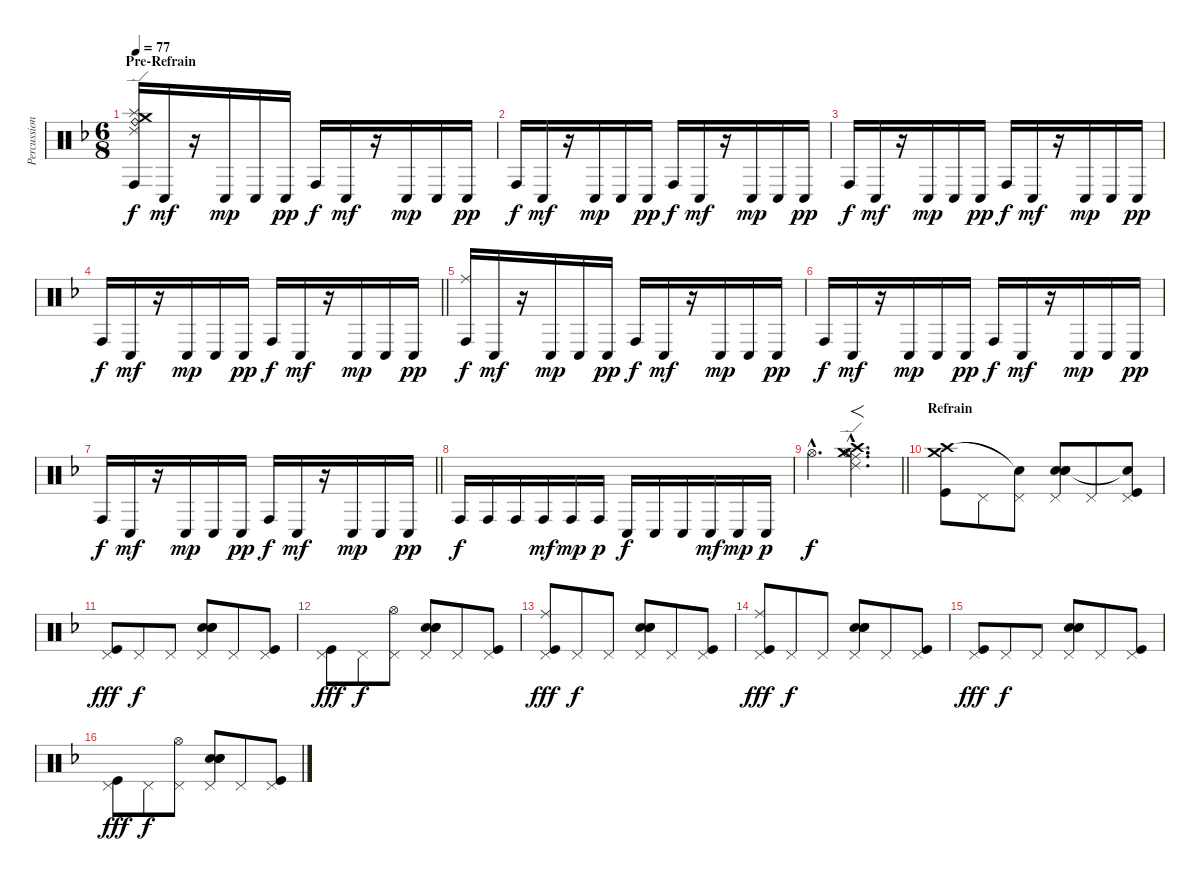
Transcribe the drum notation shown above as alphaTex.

\track ("Percussions" "Percussion") {instrument percussion}
\staff {score}
\articulation defaults
\ts (6 8)
\section ("" "Pre-Refrain")
\tempo 77
\clef neutral
\ks f
("Ride (edge) 2" "Splash (hit)" "Conga high (hit)" "Crash medium (hit)" "Ride (bell)").16{dy f} "Conga low (hit)".16{dy mf} r.16 "Conga low (hit)".16{dy mp} "Conga low (hit)".16 "Conga low (hit)".16{dy pp} "Conga high (hit)".16{dy f} "Conga low (hit)".16{dy mf} r.16 "Conga low (hit)".16{dy mp} "Conga low (hit)".16 "Conga low (hit)".16{dy pp} |
"Conga high (hit)".16{dy f} "Conga low (hit)".16{dy mf} r.16 "Conga low (hit)".16{dy mp} "Conga low (hit)".16 "Conga low (hit)".16{dy pp} "Conga high (hit)".16{dy f} "Conga low (hit)".16{dy mf} r.16 "Conga low (hit)".16{dy mp} "Conga low (hit)".16 "Conga low (hit)".16{dy pp} |
"Conga high (hit)".16{dy f} "Conga low (hit)".16{dy mf} r.16 "Conga low (hit)".16{dy mp} "Conga low (hit)".16 "Conga low (hit)".16{dy pp} "Conga high (hit)".16{dy f} "Conga low (hit)".16{dy mf} r.16 "Conga low (hit)".16{dy mp} "Conga low (hit)".16 "Conga low (hit)".16{dy pp} |
\barLineRight lightlight "Conga high (hit)".16{dy f} "Conga low (hit)".16{dy mf}
r.16 "Conga low (hit)".16{dy mp} "Conga low (hit)".16 "Conga low (hit)".16{dy pp} "Conga high (hit)".16{dy f} "Conga low (hit)".16{dy mf} r.16 "Conga low (hit)".16{dy mp} "Conga low (hit)".16 "Conga low (hit)".16{dy pp} |
("Ride (middle)" "Conga high (hit)").16{dy f} "Conga low (hit)".16{dy mf} r.16 "Conga low (hit)".16{dy mp} "Conga low (hit)".16 "Conga low (hit)".16{dy pp} "Conga high (hit)".16{dy f} "Conga low (hit)".16{dy mf} r.16 "Conga low (hit)".16{dy mp} "Conga low (hit)".16 "Conga low (hit)".16{dy pp} |
"Conga high (hit)".16{dy f} "Conga low (hit)".16{dy mf} r.16 "Conga low (hit)".16{dy mp} "Conga low (hit)".16 "Conga low (hit)".16{dy pp} "Conga high (hit)".16{dy f} "Conga low (hit)".16{dy mf} r.16 "Conga low (hit)".16{dy mp} "Conga low (hit)".16 "Conga low (hit)".16{dy pp} |
\barLineRight lightlight "Conga high (hit)".16{dy f} "Conga low (hit)".16{dy mf}
r.16 "Conga low (hit)".16{dy mp} "Conga low (hit)".16 "Conga low (hit)".16{dy pp} "Conga high (hit)".16{dy f} "Conga low (hit)".16{dy mf} r.16 "Conga low (hit)".16{dy mp} "Conga low (hit)".16 "Conga low (hit)".16{dy pp} |
"Conga high (hit)".16{dy f} "Conga high (hit)".16 "Conga high (hit)".16 "Conga high (hit)".16{dy mf} "Conga high (hit)".16{dy mp} "Conga high (hit)".16{dy p} "Conga low (hit)".16{dy f} "Conga low (hit)".16 "Conga low (hit)".16 "Conga low (hit)".16{dy mf} "Conga low (hit)".16{dy mp} "Conga low (hit)".16{dy p} |
\barLineRight lightlight "Hi-Hat (open)"{hac}.4{d dy f}
("Crash medium (hit)"{hac} "Crash high (hit)"{hac} "Ride (middle)"{hac} "Ride (edge) 2"{hac} "Hi-Hat (open)"{hac}).4{f d} |
\section ("" "Refrain")
("Crash medium (hit)" "Crash high (hit)" "Kick (hit)").8 "Pedal Hi-Hat (hit)".8 ("Pedal Hi-Hat (hit)" "Snare (hit)"{t}).8 ("Pedal Hi-Hat (hit)" "Metronome (bell)" "Electric Snare (hit)" "Snare (hit) 2").8 "Pedal Hi-Hat (hit)".8 ("Pedal Hi-Hat (hit)" "Snare (hit)"{t} "Kick (hit)").8 |
("Pedal Hi-Hat (hit)" "Kick (hit)").8{dy fff} "Pedal Hi-Hat (hit)".8{dy f} "Pedal Hi-Hat (hit)".8 ("Pedal Hi-Hat (hit)" "Metronome (bell)" "Electric Snare (hit)" "Snare (hit) 2").8 "Pedal Hi-Hat (hit)".8 ("Pedal Hi-Hat (hit)" "Kick (hit)").8 |
("Pedal Hi-Hat (hit)" "Kick (hit)").8{dy fff} "Pedal Hi-Hat (hit)".8{dy f} ("Pedal Hi-Hat (hit)" "Hi-Hat (open)").8 ("Pedal Hi-Hat (hit)" "Metronome (bell)" "Electric Snare (hit)" "Snare (hit) 2").8 "Pedal Hi-Hat (hit)".8 ("Pedal Hi-Hat (hit)" "Kick (hit)").8 |
("Pedal Hi-Hat (hit)" "Ride (middle)" "Kick (hit)").8{dy fff} "Pedal Hi-Hat (hit)".8{dy f} "Pedal Hi-Hat (hit)".8 ("Pedal Hi-Hat (hit)" "Metronome (bell)" "Electric Snare (hit)" "Snare (hit) 2").8 "Pedal Hi-Hat (hit)".8 ("Pedal Hi-Hat (hit)" "Kick (hit)").8 |
("Pedal Hi-Hat (hit)" "Ride (middle)" "Kick (hit)").8{dy fff} "Pedal Hi-Hat (hit)".8{dy f} "Pedal Hi-Hat (hit)".8 ("Pedal Hi-Hat (hit)" "Metronome (bell)" "Electric Snare (hit)" "Snare (hit) 2").8 "Pedal Hi-Hat (hit)".8 ("Pedal Hi-Hat (hit)" "Kick (hit)").8 |
("Pedal Hi-Hat (hit)" "Kick (hit)").8{dy fff} "Pedal Hi-Hat (hit)".8{dy f} "Pedal Hi-Hat (hit)".8 ("Pedal Hi-Hat (hit)" "Metronome (bell)" "Electric Snare (hit)" "Snare (hit) 2").8 "Pedal Hi-Hat (hit)".8 ("Pedal Hi-Hat (hit)" "Kick (hit)").8 |
("Pedal Hi-Hat (hit)" "Kick (hit)").8{dy fff} "Pedal Hi-Hat (hit)".8{dy f} ("Pedal Hi-Hat (hit)" "Hi-Hat (open)").8 ("Pedal Hi-Hat (hit)" "Metronome (bell)" "Electric Snare (hit)" "Snare (hit) 2").8 "Pedal Hi-Hat (hit)".8 ("Pedal Hi-Hat (hit)" "Kick (hit)").8
